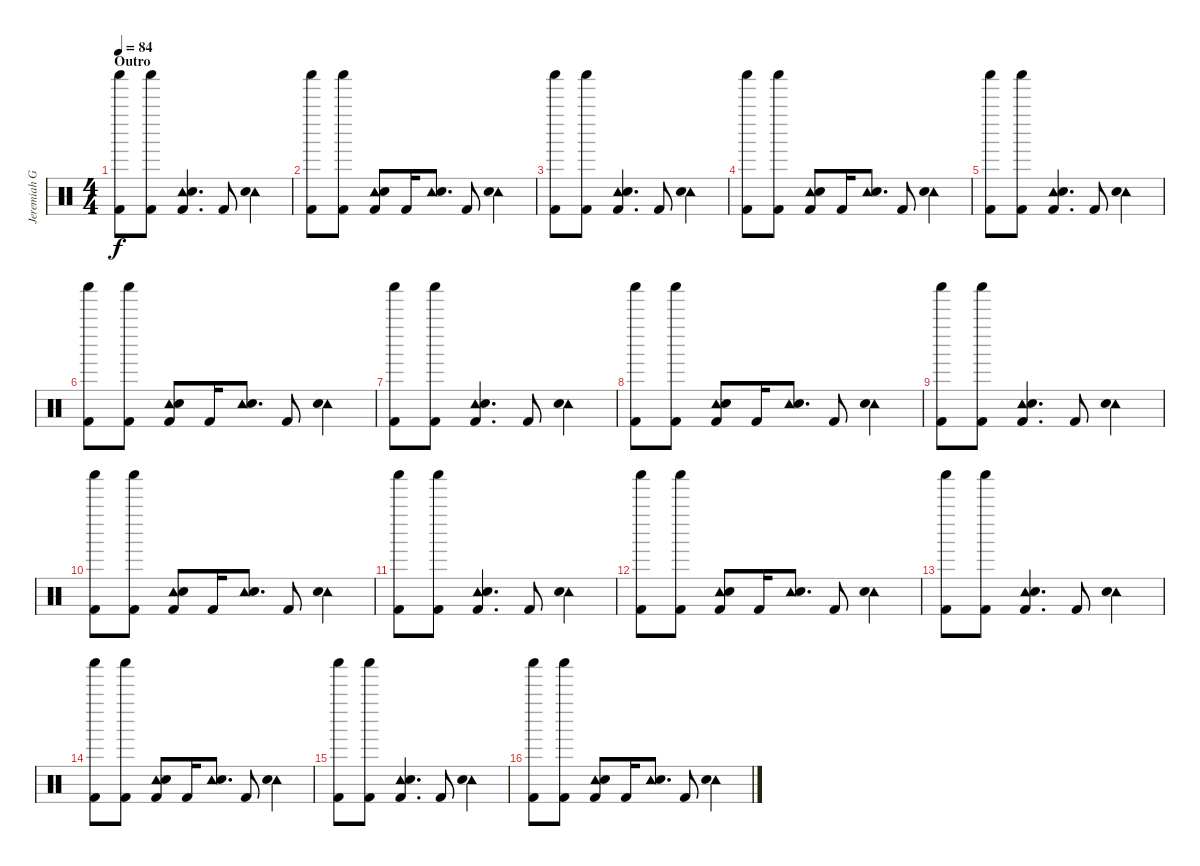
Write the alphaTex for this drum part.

\track ("Jeremiah Green" "Jeremiah G") {instrument percussion}
\staff {score}
\articulation defaults
\ts (4 4)
\section ("" "Outro")
\tempo 84
\clef neutral
\ks c
("Shaker (hit)" "Kick (hit) 2").8{dy f} ("Shaker (hit)" "Kick (hit) 2").8 ("Tambourine (hit)" "Electric Snare (hit)" "Kick (hit) 2").4{d} "Kick (hit) 2".8 ("Tambourine (hit)" "Electric Snare (hit)").4 |
("Shaker (hit)" "Kick (hit) 2").8 ("Shaker (hit)" "Kick (hit) 2").8 ("Tambourine (hit)" "Electric Snare (hit)" "Kick (hit) 2").8 "Kick (hit) 2".16 ("Tambourine (hit)" "Electric Snare (hit)").8{d} "Kick (hit) 2".8 ("Tambourine (hit)" "Electric Snare (hit)").4 |
("Shaker (hit)" "Kick (hit) 2").8 ("Shaker (hit)" "Kick (hit) 2").8 ("Tambourine (hit)" "Electric Snare (hit)" "Kick (hit) 2").4{d} "Kick (hit) 2".8 ("Tambourine (hit)" "Electric Snare (hit)").4 |
("Shaker (hit)" "Kick (hit) 2").8 ("Shaker (hit)" "Kick (hit) 2").8 ("Tambourine (hit)" "Electric Snare (hit)" "Kick (hit) 2").8 "Kick (hit) 2".16 ("Tambourine (hit)" "Electric Snare (hit)").8{d} "Kick (hit) 2".8 ("Tambourine (hit)" "Electric Snare (hit)").4 |
("Shaker (hit)" "Kick (hit) 2").8 ("Shaker (hit)" "Kick (hit) 2").8 ("Tambourine (hit)" "Electric Snare (hit)" "Kick (hit) 2").4{d} "Kick (hit) 2".8 ("Tambourine (hit)" "Electric Snare (hit)").4 |
("Shaker (hit)" "Kick (hit) 2").8 ("Shaker (hit)" "Kick (hit) 2").8 ("Tambourine (hit)" "Electric Snare (hit)" "Kick (hit) 2").8 "Kick (hit) 2".16 ("Tambourine (hit)" "Electric Snare (hit)").8{d} "Kick (hit) 2".8 ("Tambourine (hit)" "Electric Snare (hit)").4 |
("Shaker (hit)" "Kick (hit) 2").8 ("Shaker (hit)" "Kick (hit) 2").8 ("Tambourine (hit)" "Electric Snare (hit)" "Kick (hit) 2").4{d} "Kick (hit) 2".8 ("Tambourine (hit)" "Electric Snare (hit)").4 |
("Shaker (hit)" "Kick (hit) 2").8 ("Shaker (hit)" "Kick (hit) 2").8 ("Tambourine (hit)" "Electric Snare (hit)" "Kick (hit) 2").8 "Kick (hit) 2".16 ("Tambourine (hit)" "Electric Snare (hit)").8{d} "Kick (hit) 2".8 ("Tambourine (hit)" "Electric Snare (hit)").4 |
("Shaker (hit)" "Kick (hit) 2").8 ("Shaker (hit)" "Kick (hit) 2").8 ("Tambourine (hit)" "Electric Snare (hit)" "Kick (hit) 2").4{d} "Kick (hit) 2".8 ("Tambourine (hit)" "Electric Snare (hit)").4 |
("Shaker (hit)" "Kick (hit) 2").8 ("Shaker (hit)" "Kick (hit) 2").8 ("Tambourine (hit)" "Electric Snare (hit)" "Kick (hit) 2").8 "Kick (hit) 2".16 ("Tambourine (hit)" "Electric Snare (hit)").8{d} "Kick (hit) 2".8 ("Tambourine (hit)" "Electric Snare (hit)").4 |
("Shaker (hit)" "Kick (hit) 2").8 ("Shaker (hit)" "Kick (hit) 2").8 ("Tambourine (hit)" "Electric Snare (hit)" "Kick (hit) 2").4{d} "Kick (hit) 2".8 ("Tambourine (hit)" "Electric Snare (hit)").4 |
("Shaker (hit)" "Kick (hit) 2").8 ("Shaker (hit)" "Kick (hit) 2").8 ("Tambourine (hit)" "Electric Snare (hit)" "Kick (hit) 2").8 "Kick (hit) 2".16 ("Tambourine (hit)" "Electric Snare (hit)").8{d} "Kick (hit) 2".8 ("Tambourine (hit)" "Electric Snare (hit)").4 |
("Shaker (hit)" "Kick (hit) 2").8 ("Shaker (hit)" "Kick (hit) 2").8 ("Tambourine (hit)" "Electric Snare (hit)" "Kick (hit) 2").4{d} "Kick (hit) 2".8 ("Tambourine (hit)" "Electric Snare (hit)").4 |
("Shaker (hit)" "Kick (hit) 2").8 ("Shaker (hit)" "Kick (hit) 2").8 ("Tambourine (hit)" "Electric Snare (hit)" "Kick (hit) 2").8 "Kick (hit) 2".16 ("Tambourine (hit)" "Electric Snare (hit)").8{d} "Kick (hit) 2".8 ("Tambourine (hit)" "Electric Snare (hit)").4 |
("Shaker (hit)" "Kick (hit) 2").8 ("Shaker (hit)" "Kick (hit) 2").8 ("Tambourine (hit)" "Electric Snare (hit)" "Kick (hit) 2").4{d} "Kick (hit) 2".8 ("Tambourine (hit)" "Electric Snare (hit)").4 |
("Shaker (hit)" "Kick (hit) 2").8 ("Shaker (hit)" "Kick (hit) 2").8 ("Tambourine (hit)" "Electric Snare (hit)" "Kick (hit) 2").8 "Kick (hit) 2".16 ("Tambourine (hit)" "Electric Snare (hit)").8{d} "Kick (hit) 2".8 ("Tambourine (hit)" "Electric Snare (hit)").4
